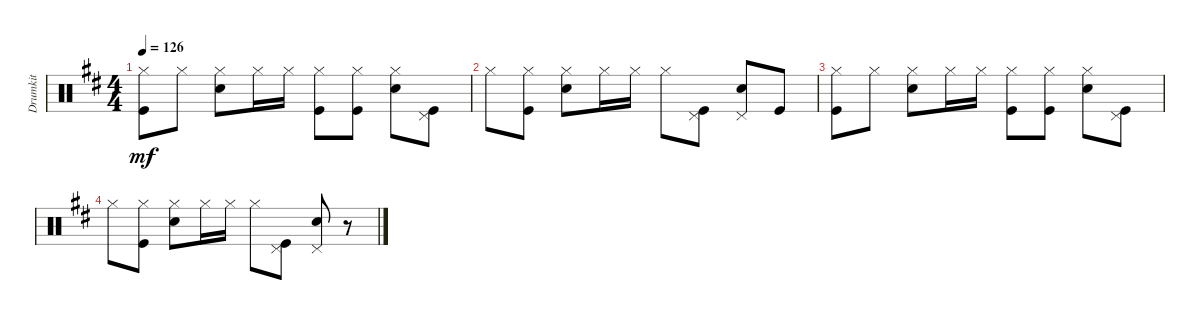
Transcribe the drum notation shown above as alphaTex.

\track ("Drumkit" "Drumkit") {instrument percussion}
\staff {score}
\articulation defaults
\ts (4 4)
\tempo 126
\clef neutral
\ks bminor
("Hi-Hat (closed)" "Kick (hit)").8{dy mf} "Hi-Hat (closed)".8 ("Hi-Hat (closed)" "Snare (hit) 2").8 "Hi-Hat (closed)".16 "Hi-Hat (closed)".16 ("Hi-Hat (closed)" "Kick (hit)").8 ("Hi-Hat (closed)" "Kick (hit)").8 ("Hi-Hat (closed)" "Snare (hit) 2").8 ("Kick (hit)" "Pedal Hi-Hat (hit)").8 |
"Hi-Hat (closed)".8 ("Hi-Hat (closed)" "Kick (hit)").8 ("Hi-Hat (closed)" "Snare (hit) 2").8 "Hi-Hat (closed)".16 "Hi-Hat (closed)".16 "Hi-Hat (closed)".8 ("Kick (hit)" "Pedal Hi-Hat (hit)").8 ("Snare (hit) 2" "Pedal Hi-Hat (hit)").8 "Kick (hit)".8 |
("Hi-Hat (closed)" "Kick (hit)").8 "Hi-Hat (closed)".8 ("Hi-Hat (closed)" "Snare (hit) 2").8 "Hi-Hat (closed)".16 "Hi-Hat (closed)".16 ("Hi-Hat (closed)" "Kick (hit)").8 ("Hi-Hat (closed)" "Kick (hit)").8 ("Hi-Hat (closed)" "Snare (hit) 2").8 ("Kick (hit)" "Pedal Hi-Hat (hit)").8 |
"Hi-Hat (closed)".8 ("Hi-Hat (closed)" "Kick (hit)").8 ("Hi-Hat (closed)" "Snare (hit) 2").8 "Hi-Hat (closed)".16 "Hi-Hat (closed)".16 "Hi-Hat (closed)".8 ("Kick (hit)" "Pedal Hi-Hat (hit)").8 ("Snare (hit) 2" "Pedal Hi-Hat (hit)").8 r.8
